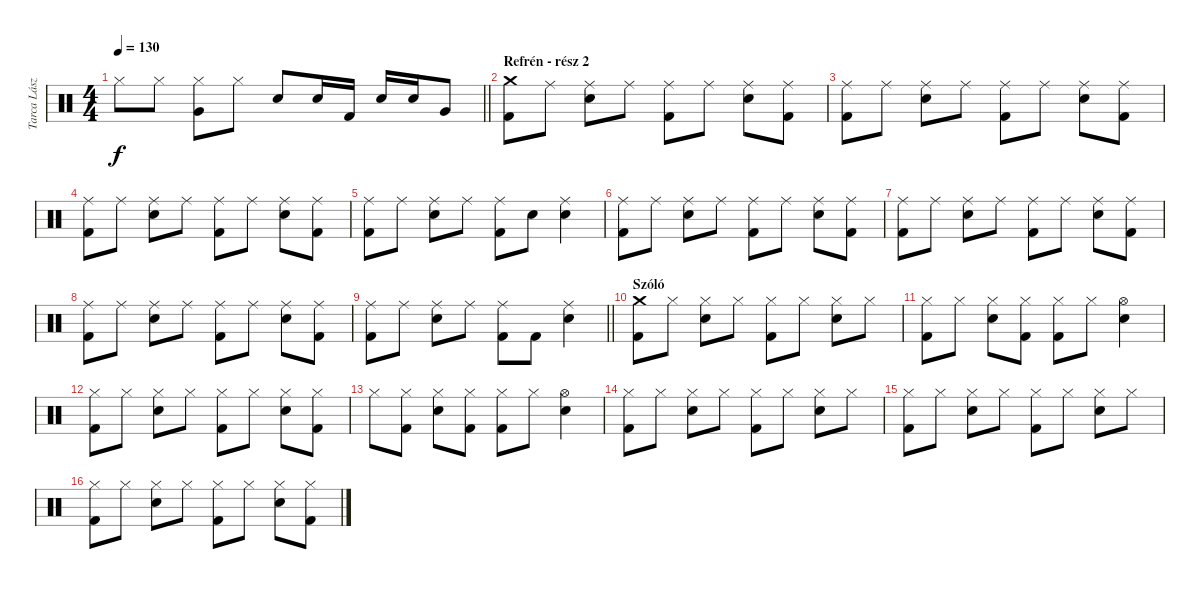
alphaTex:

\track ("Tarca László - dob" "Tarca Lász") {instrument percussion}
\staff {score}
\articulation defaults
\ts (4 4)
\tempo 130
\clef neutral
\barLineRight lightlight
\ks c "Hi-Hat (closed)".8{dy f} "Hi-Hat (closed)".8
("Hi-Hat (closed)" "Very Low Tom (hit)").8 "Hi-Hat (closed)".8 "Snare (hit) 2".8 "Snare (hit) 2".16 "Kick (hit) 2".16 "Snare (hit) 2".16 "Snare (hit) 2".16 "Very Low Tom (hit)".8 |
\section ("" "Refrén - rész 2")
("Crash medium (hit)" "Kick (hit) 2").8 "Ride (middle)".8 ("Ride (middle)" "Snare (hit) 2").8 "Ride (middle)".8 ("Ride (middle)" "Kick (hit) 2").8 "Ride (middle)".8 ("Ride (middle)" "Snare (hit) 2").8 ("Ride (middle)" "Kick (hit) 2").8 |
("Ride (middle)" "Kick (hit) 2").8 "Ride (middle)".8 ("Ride (middle)" "Snare (hit) 2").8 "Ride (middle)".8 ("Ride (middle)" "Kick (hit) 2").8 "Ride (middle)".8 ("Ride (middle)" "Snare (hit) 2").8 ("Ride (middle)" "Kick (hit) 2").8 |
("Ride (middle)" "Kick (hit) 2").8 "Ride (middle)".8 ("Ride (middle)" "Snare (hit) 2").8 "Ride (middle)".8 ("Ride (middle)" "Kick (hit) 2").8 "Ride (middle)".8 ("Ride (middle)" "Snare (hit) 2").8 ("Ride (middle)" "Kick (hit) 2").8 |
("Ride (middle)" "Kick (hit) 2").8 "Ride (middle)".8 ("Ride (middle)" "Snare (hit) 2").8 "Ride (middle)".8 ("Ride (middle)" "Kick (hit) 2").8 "Snare (hit) 2".8 ("Ride (middle)" "Snare (hit) 2").4 |
("Ride (middle)" "Kick (hit) 2").8 "Ride (middle)".8 ("Ride (middle)" "Snare (hit) 2").8 "Ride (middle)".8 ("Ride (middle)" "Kick (hit) 2").8 "Ride (middle)".8 ("Ride (middle)" "Snare (hit) 2").8 ("Ride (middle)" "Kick (hit) 2").8 |
("Ride (middle)" "Kick (hit) 2").8 "Ride (middle)".8 ("Ride (middle)" "Snare (hit) 2").8 "Ride (middle)".8 ("Ride (middle)" "Kick (hit) 2").8 "Ride (middle)".8 ("Ride (middle)" "Snare (hit) 2").8 ("Ride (middle)" "Kick (hit) 2").8 |
("Ride (middle)" "Kick (hit) 2").8 "Ride (middle)".8 ("Ride (middle)" "Snare (hit) 2").8 "Ride (middle)".8 ("Ride (middle)" "Kick (hit) 2").8 "Ride (middle)".8 ("Ride (middle)" "Snare (hit) 2").8 ("Ride (middle)" "Kick (hit) 2").8 |
\barLineRight lightlight
("Ride (middle)" "Kick (hit) 2").8 "Ride (middle)".8 ("Ride (middle)" "Snare (hit) 2").8 "Ride (middle)".8 ("Ride (middle)" "Kick (hit) 2").8 "Kick (hit) 2".8 ("Ride (middle)" "Snare (hit) 2").4 |
\section ("" "Szóló")
("Crash medium (hit)" "Kick (hit) 2").8 "Hi-Hat (closed)".8 ("Hi-Hat (closed)" "Snare (hit) 2").8 "Hi-Hat (closed)".8 ("Hi-Hat (closed)" "Kick (hit) 2").8 "Hi-Hat (closed)".8 ("Hi-Hat (closed)" "Snare (hit) 2").8 "Hi-Hat (closed)".8 |
("Hi-Hat (closed)" "Kick (hit) 2").8 "Hi-Hat (closed)".8 ("Hi-Hat (closed)" "Snare (hit) 2").8 ("Hi-Hat (closed)" "Kick (hit) 2").8 ("Hi-Hat (closed)" "Kick (hit) 2").8 "Hi-Hat (closed)".8 ("Hi-Hat (open)" "Snare (hit) 2").4 |
("Hi-Hat (closed)" "Kick (hit) 2").8 "Hi-Hat (closed)".8 ("Hi-Hat (closed)" "Snare (hit) 2").8 "Hi-Hat (closed)".8 ("Hi-Hat (closed)" "Kick (hit) 2").8 "Hi-Hat (closed)".8 ("Hi-Hat (closed)" "Snare (hit) 2").8 ("Hi-Hat (closed)" "Kick (hit) 2").8 |
"Hi-Hat (closed)".8 ("Hi-Hat (closed)" "Kick (hit) 2").8 ("Hi-Hat (closed)" "Snare (hit) 2").8 ("Hi-Hat (closed)" "Kick (hit) 2").8 ("Hi-Hat (closed)" "Kick (hit) 2").8 "Hi-Hat (closed)".8 ("Hi-Hat (open)" "Snare (hit) 2").4 |
("Hi-Hat (closed)" "Kick (hit) 2").8 "Hi-Hat (closed)".8 ("Hi-Hat (closed)" "Snare (hit) 2").8 "Hi-Hat (closed)".8 ("Hi-Hat (closed)" "Kick (hit) 2").8 "Hi-Hat (closed)".8 ("Hi-Hat (closed)" "Snare (hit) 2").8 "Hi-Hat (closed)".8 |
("Hi-Hat (closed)" "Kick (hit) 2").8 "Hi-Hat (closed)".8 ("Hi-Hat (closed)" "Snare (hit) 2").8 "Hi-Hat (closed)".8 ("Hi-Hat (closed)" "Kick (hit) 2").8 "Hi-Hat (closed)".8 ("Hi-Hat (closed)" "Snare (hit) 2").8 "Hi-Hat (closed)".8 |
("Hi-Hat (closed)" "Kick (hit) 2").8 "Hi-Hat (closed)".8 ("Hi-Hat (closed)" "Snare (hit) 2").8 "Hi-Hat (closed)".8 ("Hi-Hat (closed)" "Kick (hit) 2").8 "Hi-Hat (closed)".8 ("Hi-Hat (closed)" "Snare (hit) 2").8 ("Hi-Hat (closed)" "Kick (hit) 2").8
